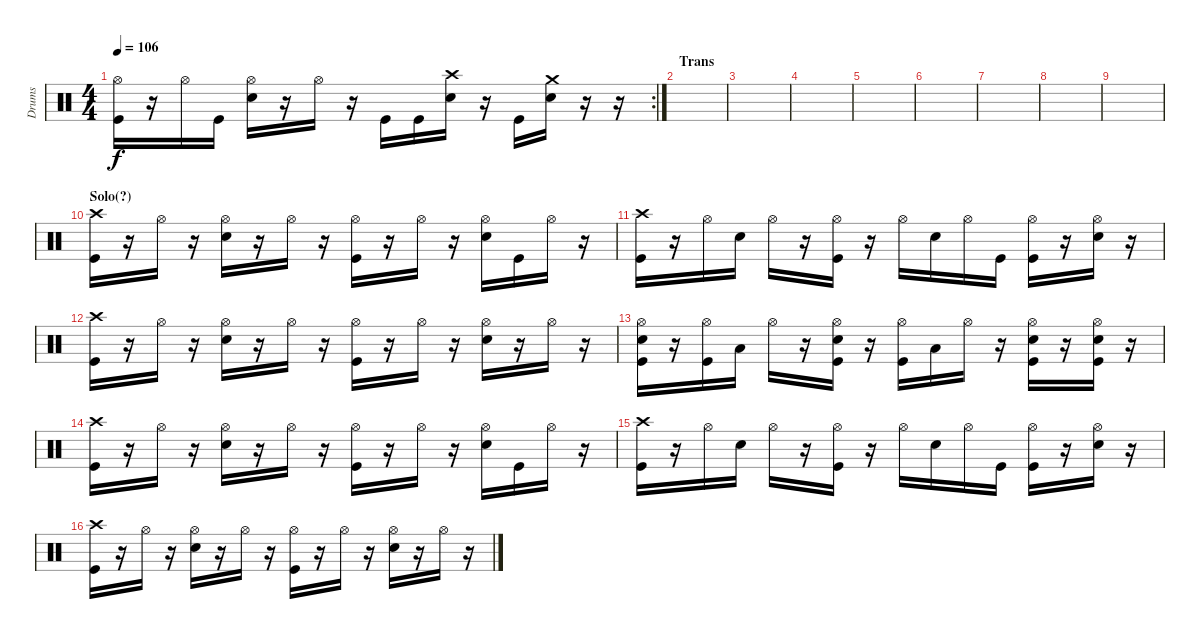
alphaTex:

\track ("Drums" "Drums") {instrument percussion}
\staff {score}
\articulation defaults
\rc 2
\ts (4 4)
\tempo 106
\clef neutral
\ks c
("Hi-Hat (open)" "Kick (hit)").16{dy f} r.16 "Hi-Hat (open)".16 "Kick (hit)".16 ("Hi-Hat (open)" "Electric Snare (hit)").16 r.16 "Hi-Hat (open)".16 r.16 "Kick (hit)".16 "Kick (hit)".16 ("Crash high (hit)" "Electric Snare (hit)").16 r.16 "Kick (hit)".16 ("Crash medium (hit)" "Electric Snare (hit)").16 r.16 r.16 |
\section ("" "Trans")
|
|
|
|
|
|
|
|
\section ("" "Solo(?)")
("Crash high (hit)" "Kick (hit)").16 r.16 "Hi-Hat (open)".16 r.16 ("Hi-Hat (open)" "Electric Snare (hit)").16 r.16 "Hi-Hat (open)".16 r.16 ("Hi-Hat (open)" "Kick (hit)").16 r.16 "Hi-Hat (open)".16 r.16 ("Hi-Hat (open)" "Electric Snare (hit)").16 "Kick (hit)".16 "Hi-Hat (open)".16 r.16 |
("Crash high (hit)" "Kick (hit)").16 r.16 "Hi-Hat (open)".16 "Electric Snare (hit)".16 "Hi-Hat (open)".16 r.16 ("Hi-Hat (open)" "Kick (hit)").16 r.16 "Hi-Hat (open)".16 "Electric Snare (hit)".16 "Hi-Hat (open)".16 "Kick (hit)".16 ("Hi-Hat (open)" "Kick (hit)").16 r.16 ("Hi-Hat (open)" "Electric Snare (hit)").16 r.16 |
("Crash high (hit)" "Kick (hit)").16 r.16 "Hi-Hat (open)".16 r.16 ("Hi-Hat (open)" "Electric Snare (hit)").16 r.16 "Hi-Hat (open)".16 r.16 ("Hi-Hat (open)" "Kick (hit)").16 r.16 "Hi-Hat (open)".16 r.16 ("Hi-Hat (open)" "Electric Snare (hit)").16 r.16 "Hi-Hat (open)".16 r.16 |
("Hi-Hat (open)" "Electric Snare (hit)" "Kick (hit)").16 r.16 ("Hi-Hat (open)" "Kick (hit)").16 "Low Tom (hit)".16 "Hi-Hat (open)".16 r.16 ("Hi-Hat (open)" "Electric Snare (hit)" "Kick (hit)").16 r.16 ("Hi-Hat (open)" "Kick (hit)").16 "Low Tom (hit)".16 "Hi-Hat (open)".16 r.16 ("Hi-Hat (open)" "Electric Snare (hit)" "Kick (hit)").16 r.16 ("Hi-Hat (open)" "Electric Snare (hit)" "Kick (hit)").16 r.16 |
("Crash high (hit)" "Kick (hit)").16 r.16 "Hi-Hat (open)".16 r.16 ("Hi-Hat (open)" "Electric Snare (hit)").16 r.16 "Hi-Hat (open)".16 r.16 ("Hi-Hat (open)" "Kick (hit)").16 r.16 "Hi-Hat (open)".16 r.16 ("Hi-Hat (open)" "Electric Snare (hit)").16 "Kick (hit)".16 "Hi-Hat (open)".16 r.16 |
("Crash high (hit)" "Kick (hit)").16 r.16 "Hi-Hat (open)".16 "Electric Snare (hit)".16 "Hi-Hat (open)".16 r.16 ("Hi-Hat (open)" "Kick (hit)").16 r.16 "Hi-Hat (open)".16 "Electric Snare (hit)".16 "Hi-Hat (open)".16 "Kick (hit)".16 ("Hi-Hat (open)" "Kick (hit)").16 r.16 ("Hi-Hat (open)" "Electric Snare (hit)").16 r.16 |
("Crash high (hit)" "Kick (hit)").16 r.16 "Hi-Hat (open)".16 r.16 ("Hi-Hat (open)" "Electric Snare (hit)").16 r.16 "Hi-Hat (open)".16 r.16 ("Hi-Hat (open)" "Kick (hit)").16 r.16 "Hi-Hat (open)".16 r.16 ("Hi-Hat (open)" "Electric Snare (hit)").16 r.16 "Hi-Hat (open)".16 r.16
